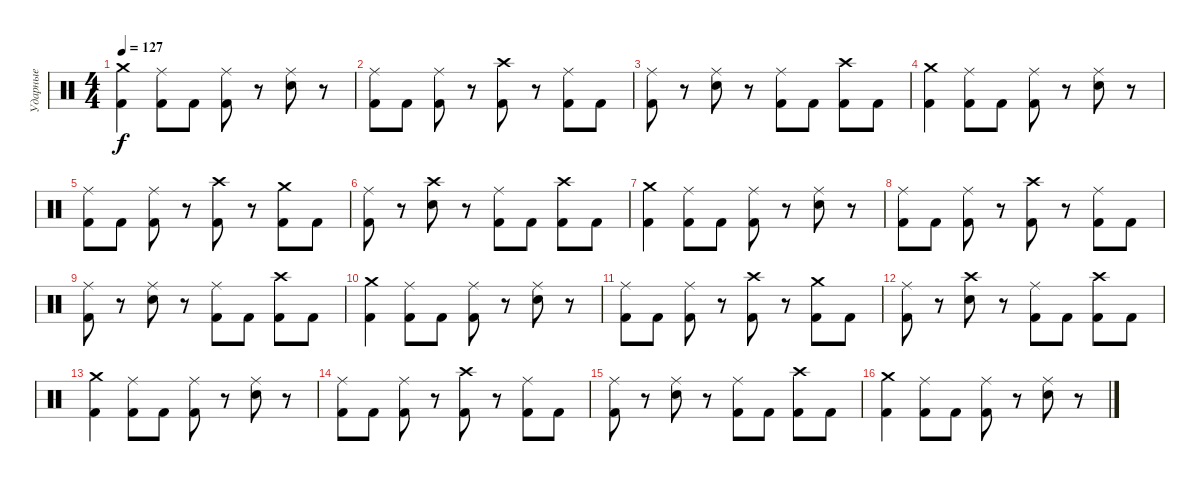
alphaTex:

\track ("Ударные" "Ударные") {instrument percussion}
\staff {score}
\articulation defaults
\ts (4 4)
\tempo 127
\clef neutral
\ks c
("Crash medium (hit)" "Kick (hit) 2").4{dy f} ("Ride (middle)" "Kick (hit) 2").8 "Kick (hit) 2".8 ("Ride (middle)" "Kick (hit) 2").8 r.8 ("Ride (middle)" "Electric Snare (hit)").8 r.8 |
("Ride (middle)" "Kick (hit) 2").8 "Kick (hit) 2".8 ("Ride (middle)" "Kick (hit) 2").8 r.8 ("Crash high (hit)" "Kick (hit) 2").8 r.8 ("Ride (middle)" "Kick (hit) 2").8 "Kick (hit) 2".8 |
("Ride (middle)" "Kick (hit) 2").8 r.8 ("Ride (middle)" "Electric Snare (hit)").8 r.8 ("Ride (middle)" "Kick (hit) 2").8 "Kick (hit) 2".8 ("Kick (hit) 2" "Crash high (hit)").8 "Kick (hit) 2".8 |
("Crash medium (hit)" "Kick (hit) 2").4 ("Ride (middle)" "Kick (hit) 2").8 "Kick (hit) 2".8 ("Ride (middle)" "Kick (hit) 2").8 r.8 ("Ride (middle)" "Electric Snare (hit)").8 r.8 |
("Ride (middle)" "Kick (hit) 2").8 "Kick (hit) 2".8 ("Ride (middle)" "Kick (hit) 2").8 r.8 ("Crash high (hit)" "Kick (hit) 2").8 r.8 ("Crash medium (hit)" "Kick (hit) 2").8 "Kick (hit) 2".8 |
("Ride (middle)" "Kick (hit) 2").8 r.8 ("Crash high (hit)" "Electric Snare (hit)").8 r.8 ("Ride (middle)" "Kick (hit) 2").8 "Kick (hit) 2".8 ("Kick (hit) 2" "Crash high (hit)").8 "Kick (hit) 2".8 |
("Crash medium (hit)" "Kick (hit) 2").4 ("Ride (middle)" "Kick (hit) 2").8 "Kick (hit) 2".8 ("Ride (middle)" "Kick (hit) 2").8 r.8 ("Ride (middle)" "Electric Snare (hit)").8 r.8 |
("Ride (middle)" "Kick (hit) 2").8 "Kick (hit) 2".8 ("Ride (middle)" "Kick (hit) 2").8 r.8 ("Crash high (hit)" "Kick (hit) 2").8 r.8 ("Ride (middle)" "Kick (hit) 2").8 "Kick (hit) 2".8 |
("Ride (middle)" "Kick (hit) 2").8 r.8 ("Ride (middle)" "Electric Snare (hit)").8 r.8 ("Ride (middle)" "Kick (hit) 2").8 "Kick (hit) 2".8 ("Kick (hit) 2" "Crash high (hit)").8 "Kick (hit) 2".8 |
("Crash medium (hit)" "Kick (hit) 2").4 ("Ride (middle)" "Kick (hit) 2").8 "Kick (hit) 2".8 ("Ride (middle)" "Kick (hit) 2").8 r.8 ("Ride (middle)" "Electric Snare (hit)").8 r.8 |
("Ride (middle)" "Kick (hit) 2").8 "Kick (hit) 2".8 ("Ride (middle)" "Kick (hit) 2").8 r.8 ("Crash high (hit)" "Kick (hit) 2").8 r.8 ("Crash medium (hit)" "Kick (hit) 2").8 "Kick (hit) 2".8 |
("Ride (middle)" "Kick (hit) 2").8 r.8 ("Crash high (hit)" "Electric Snare (hit)").8 r.8 ("Ride (middle)" "Kick (hit) 2").8 "Kick (hit) 2".8 ("Kick (hit) 2" "Crash high (hit)").8 "Kick (hit) 2".8 |
("Crash medium (hit)" "Kick (hit) 2").4 ("Ride (middle)" "Kick (hit) 2").8 "Kick (hit) 2".8 ("Ride (middle)" "Kick (hit) 2").8 r.8 ("Ride (middle)" "Electric Snare (hit)").8 r.8 |
("Ride (middle)" "Kick (hit) 2").8 "Kick (hit) 2".8 ("Ride (middle)" "Kick (hit) 2").8 r.8 ("Crash high (hit)" "Kick (hit) 2").8 r.8 ("Ride (middle)" "Kick (hit) 2").8 "Kick (hit) 2".8 |
("Ride (middle)" "Kick (hit) 2").8 r.8 ("Ride (middle)" "Electric Snare (hit)").8 r.8 ("Ride (middle)" "Kick (hit) 2").8 "Kick (hit) 2".8 ("Kick (hit) 2" "Crash high (hit)").8 "Kick (hit) 2".8 |
("Crash medium (hit)" "Kick (hit) 2").4 ("Ride (middle)" "Kick (hit) 2").8 "Kick (hit) 2".8 ("Ride (middle)" "Kick (hit) 2").8 r.8 ("Ride (middle)" "Electric Snare (hit)").8 r.8
